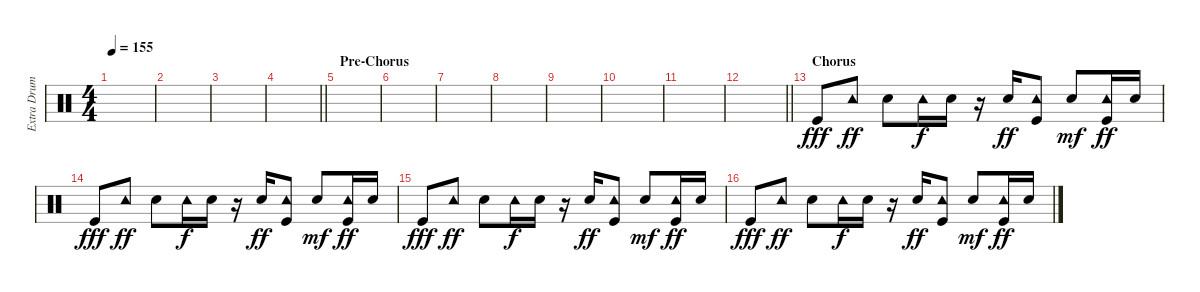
\track ("Extra Drums" "Extra Drum") {instrument percussion}
\staff {score}
\articulation defaults
\ts (4 4)
\tempo 155
\clef neutral
\ks c
|
|
|
\barLineRight lightlight
|
\section ("" "Pre-Chorus")
|
|
|
|
|
|
|
\barLineRight lightlight
|
\section ("" "Chorus")
"Kick (hit)".8{dy fff} "Tambourine (hit)".8{dy ff} "Electric Snare (hit)".8 "Tambourine (hit)".16{dy f} "Electric Snare (hit)".16 r.16 "Electric Snare (hit)".16{dy ff} ("Kick (hit)" "Tambourine (hit)").8 "Electric Snare (hit)".8{dy mf} ("Kick (hit)" "Tambourine (hit)").16{dy ff} "Electric Snare (hit)".16 |
"Kick (hit)".8{dy fff} "Tambourine (hit)".8{dy ff} "Electric Snare (hit)".8 "Tambourine (hit)".16{dy f} "Electric Snare (hit)".16 r.16 "Electric Snare (hit)".16{dy ff} ("Kick (hit)" "Tambourine (hit)").8 "Electric Snare (hit)".8{dy mf} ("Kick (hit)" "Tambourine (hit)").16{dy ff} "Electric Snare (hit)".16 |
"Kick (hit)".8{dy fff} "Tambourine (hit)".8{dy ff} "Electric Snare (hit)".8 "Tambourine (hit)".16{dy f} "Electric Snare (hit)".16 r.16 "Electric Snare (hit)".16{dy ff} ("Kick (hit)" "Tambourine (hit)").8 "Electric Snare (hit)".8{dy mf} ("Kick (hit)" "Tambourine (hit)").16{dy ff} "Electric Snare (hit)".16 |
"Kick (hit)".8{dy fff} "Tambourine (hit)".8{dy ff} "Electric Snare (hit)".8 "Tambourine (hit)".16{dy f} "Electric Snare (hit)".16 r.16 "Electric Snare (hit)".16{dy ff} ("Kick (hit)" "Tambourine (hit)").8 "Electric Snare (hit)".8{dy mf} ("Kick (hit)" "Tambourine (hit)").16{dy ff} "Electric Snare (hit)".16
